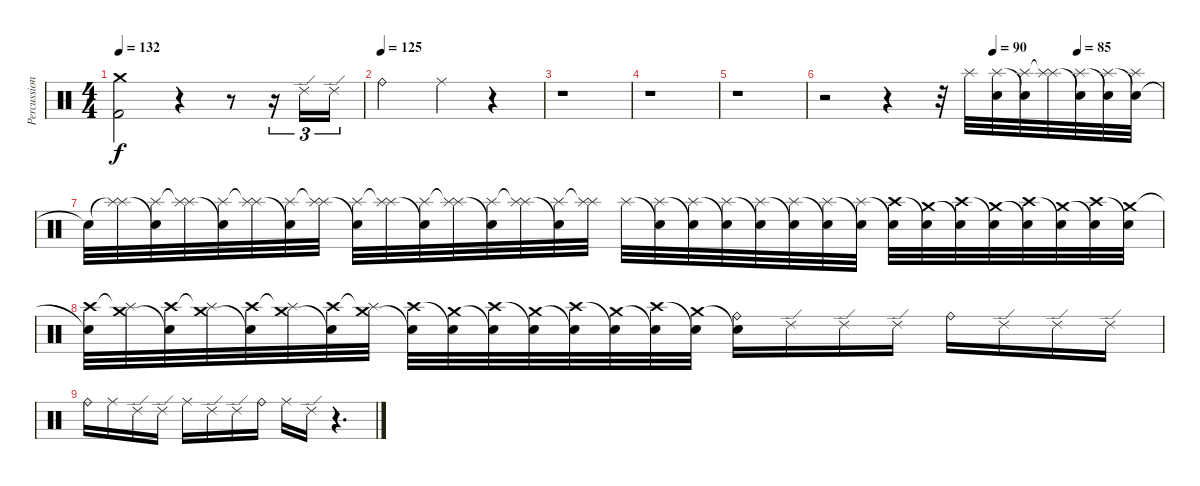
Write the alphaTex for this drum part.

\track ("Percussion" "Percussion") {instrument percussion}
\staff {score}
\articulation defaults
\ts (4 4)
\tempo 132
\clef neutral
\ks c
("Crash medium (hit)" "Kick (hit) 2").2{dy f} r.4 r.8 r.16{tu (3 2)} "Ride (edge) 2".16{tu (3 2)} "Ride (edge) 2".16{tu (3 2)} |
\tempo (125)
"Ride (bell)".2 "Ride (middle)".4 r.4 |
r.1 |
r.1 |
r.1 |
\tempo (90 0.5)
\tempo (85 0.75)
r.2 r.4 r.32 "Splash (hit)".32{volume 1} ("Splash (hit)" "Snare (hit)").32 ("Snare (hit)"{t} "Splash (hit)").32{volume 3} ("Splash (hit)" "Splash (hit)"{t}).32 ("Snare (hit)"{t} "Splash (hit)").32 ("Splash (hit)" "Snare (hit)"{t}).32 ("Snare (hit)"{t} "Splash (hit)").32 |
"Snare (hit)"{t}.32{volume 4} ("Splash (hit)"{t} "Splash (hit)").32 ("Splash (hit)" "Snare (hit)"{t}).32 ("Splash (hit)"{t} "Splash (hit)").32 ("Splash (hit)" "Snare (hit)"{t}).32{volume 5} ("Splash (hit)"{t} "Splash (hit)").32 ("Splash (hit)" "Snare (hit)"{t}).32 ("Splash (hit)"{t} "Splash (hit)").32 ("Splash (hit)" "Snare (hit)"{t}).32{volume 6} ("Splash (hit)"{t} "Splash (hit)").32 ("Splash (hit)" "Snare (hit)"{t}).32 ("Splash (hit)"{t} "Splash (hit)").32 ("Splash (hit)" "Snare (hit)"{t}).32{volume 6} ("Splash (hit)"{t} "Splash (hit)").32 ("Splash (hit)" "Snare (hit)"{t}).32 ("Splash (hit)"{t} "Splash (hit)").32 "Splash (hit)".32 ("Snare (hit)"{t} "Splash (hit)").32 ("Splash (hit)" "Snare (hit)"{t}).32 ("Snare (hit)"{t} "Splash (hit)").32 ("Splash (hit)" "Snare (hit)"{t}).32 ("Snare (hit)"{t} "Splash (hit)").32 ("Splash (hit)" "Snare (hit)"{t}).32 ("Snare (hit)"{t} "Splash (hit)").32 ("Crash high (hit)" "Snare (hit)"{t}).32 ("Snare (hit)"{t} "Crash medium (hit)").32 ("Crash high (hit)" "Snare (hit)"{t}).32 ("Snare (hit)"{t} "Crash medium (hit)").32 ("Crash high (hit)" "Snare (hit)"{t}).32 ("Snare (hit)"{t} "Crash medium (hit)").32 ("Crash high (hit)" "Snare (hit)"{t}).32 ("Snare (hit)"{t} "Crash medium (hit)").32 |
("Crash high (hit)" "Snare (hit)"{t}).32 ("Splash (hit)"{t} "Crash medium (hit)").32 ("Crash high (hit)" "Snare (hit)"{t}).32 ("Splash (hit)"{t} "Crash medium (hit)").32 ("Crash high (hit)" "Snare (hit)"{t}).32 ("Splash (hit)"{t} "Crash medium (hit)").32 ("Crash high (hit)" "Snare (hit)"{t}).32 ("Splash (hit)"{t} "Crash medium (hit)").32 ("Crash high (hit)" "Snare (hit)"{t}).32 ("Snare (hit)"{t} "Crash medium (hit)").32 ("Crash high (hit)" "Snare (hit)"{t}).32 ("Snare (hit)"{t} "Crash medium (hit)").32 ("Crash high (hit)" "Snare (hit)"{t}).32 ("Snare (hit)"{t} "Crash medium (hit)").32 ("Crash high (hit)" "Snare (hit)"{t}).32 ("Snare (hit)"{t} "Crash medium (hit)").32 ("Ride (bell)" "Snare (hit)"{t}).16{volume 0} "Ride (edge) 2".16 "Ride (edge) 2".16 "Ride (edge) 2".16 "Ride (bell)".16 "Ride (edge) 2".16 "Ride (edge) 2".16 "Ride (edge) 2".16 |
"Ride (bell)".16 "Ride (middle)".16 "Ride (edge) 2".16 "Ride (edge) 2".16 "Ride (middle)".16 "Ride (edge) 2".16 "Ride (edge) 2".16 "Ride (bell)".16 "Ride (middle)".16 "Ride (edge) 2".16 r.4{d}
